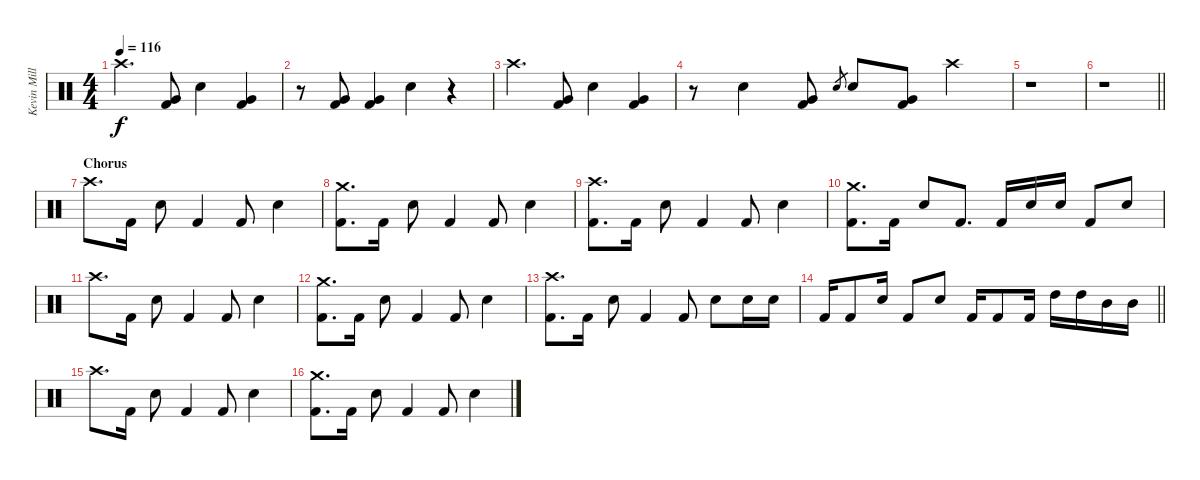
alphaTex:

\track ("Kevin Miller (Drums)" "Kevin Mill") {instrument percussion}
\staff {score}
\articulation defaults
\ts (4 4)
\tempo 116
\clef neutral
\ks c "Crash high (hit)".4{d dy f}
("Kick (hit) 2" "Very Low Tom (hit)").8 "Electric Snare (hit)".4 ("Kick (hit) 2" "Very Low Tom (hit)").4 |
r.8 ("Kick (hit) 2" "Very Low Tom (hit)").8 ("Kick (hit) 2" "Very Low Tom (hit)").4 "Electric Snare (hit)".4 r.4 |
"Crash high (hit)".4{d} ("Kick (hit) 2" "Very Low Tom (hit)").8 "Electric Snare (hit)".4 ("Kick (hit) 2" "Very Low Tom (hit)").4 |
r.8 "Electric Snare (hit)".4 ("Kick (hit) 2" "Very Low Tom (hit)").8 "Electric Snare (hit)".8{gr} "Electric Snare (hit)".8 ("Kick (hit) 2" "Very Low Tom (hit)").8 "Crash high (hit)".4 |
r.1 |
\barLineRight lightlight
r.1 |
\section ("" "Chorus")
"Crash high (hit)".8{d} "Kick (hit) 2".16 "Electric Snare (hit)".8 "Kick (hit) 2".4 "Kick (hit) 2".8 "Electric Snare (hit)".4 |
("Crash medium (hit)" "Kick (hit) 2").8{d} "Kick (hit) 2".16 "Electric Snare (hit)".8 "Kick (hit) 2".4 "Kick (hit) 2".8 "Electric Snare (hit)".4 |
("Crash high (hit)" "Kick (hit) 2").8{d} "Kick (hit) 2".16 "Electric Snare (hit)".8 "Kick (hit) 2".4 "Kick (hit) 2".8 "Electric Snare (hit)".4 |
("Crash medium (hit)" "Kick (hit) 2").8{d} "Kick (hit) 2".16 "Electric Snare (hit)".8 "Kick (hit) 2".8{d} "Kick (hit) 2".16 "Electric Snare (hit)".16 "Electric Snare (hit)".16 "Kick (hit) 2".8 "Electric Snare (hit)".8 |
"Crash high (hit)".8{d} "Kick (hit) 2".16 "Electric Snare (hit)".8 "Kick (hit) 2".4 "Kick (hit) 2".8 "Electric Snare (hit)".4 |
("Crash medium (hit)" "Kick (hit) 2").8{d} "Kick (hit) 2".16 "Electric Snare (hit)".8 "Kick (hit) 2".4 "Kick (hit) 2".8 "Electric Snare (hit)".4 |
("Crash high (hit)" "Kick (hit) 2").8{d} "Kick (hit) 2".16 "Electric Snare (hit)".8 "Kick (hit) 2".4 "Kick (hit) 2".8 "Electric Snare (hit)".8 "Electric Snare (hit)".16 "Electric Snare (hit)".16 |
\barLineRight lightlight "Kick (hit) 2".16 "Kick (hit) 2".8 "Electric Snare (hit)".16 "Kick (hit) 2".8 "Electric Snare (hit)".8 "Kick (hit) 2".16 "Kick (hit) 2".8 "Kick (hit) 2".16 "High Tom (hit)".16 "High Tom (hit)".16 "Mid Tom (hit)".16 "Mid Tom (hit)".16
|
"Crash high (hit)".8{d} "Kick (hit) 2".16 "Electric Snare (hit)".8 "Kick (hit) 2".4 "Kick (hit) 2".8 "Electric Snare (hit)".4 |
("Crash medium (hit)" "Kick (hit) 2").8{d} "Kick (hit) 2".16 "Electric Snare (hit)".8 "Kick (hit) 2".4 "Kick (hit) 2".8 "Electric Snare (hit)".4
